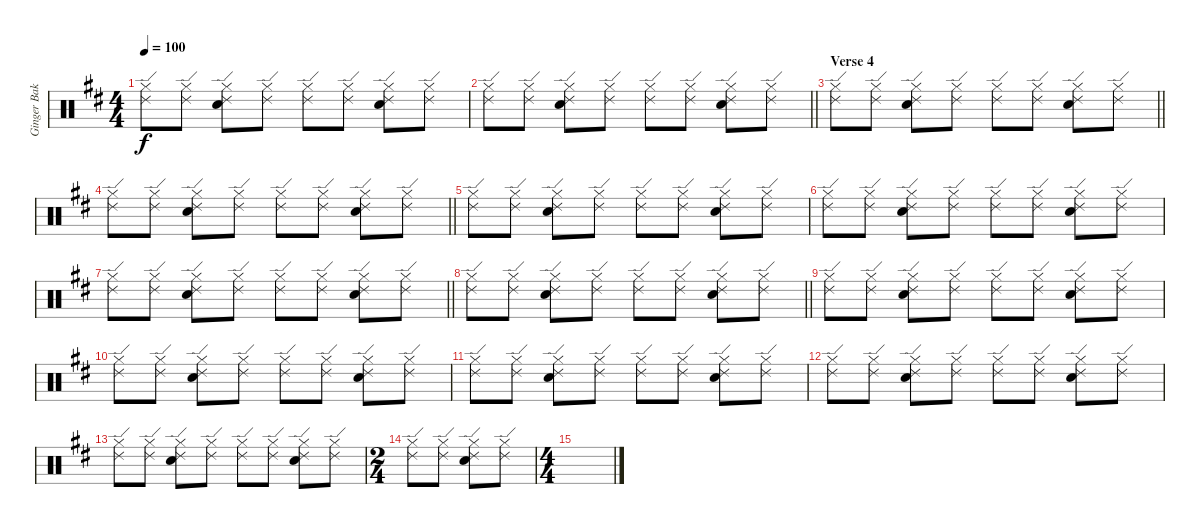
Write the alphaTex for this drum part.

\track ("Ginger Baker" "Ginger Bak") {instrument percussion}
\staff {score}
\articulation defaults
\ts (4 4)
\tempo 100
\clef neutral
\ks d
("Hi-Hat (closed)" "Ride (edge) 2").8{dy f} ("Hi-Hat (closed)" "Ride (edge) 2").8 ("Hi-Hat (closed)" "Ride (edge) 2" "Electric Snare (hit)").8 ("Hi-Hat (closed)" "Ride (edge) 2").8 ("Hi-Hat (closed)" "Ride (edge) 2").8 ("Hi-Hat (closed)" "Ride (edge) 2").8 ("Hi-Hat (closed)" "Ride (edge) 2" "Electric Snare (hit)").8 ("Hi-Hat (closed)" "Ride (edge) 2").8 |
\barLineRight lightlight
("Hi-Hat (closed)" "Ride (edge) 2").8 ("Hi-Hat (closed)" "Ride (edge) 2").8 ("Hi-Hat (closed)" "Ride (edge) 2" "Electric Snare (hit)").8 ("Hi-Hat (closed)" "Ride (edge) 2").8 ("Hi-Hat (closed)" "Ride (edge) 2").8 ("Hi-Hat (closed)" "Ride (edge) 2").8 ("Hi-Hat (closed)" "Ride (edge) 2" "Electric Snare (hit)").8 ("Hi-Hat (closed)" "Ride (edge) 2").8 |
\section ("" "Verse 4")
\barLineRight lightlight
("Hi-Hat (closed)" "Ride (edge) 2").8 ("Hi-Hat (closed)" "Ride (edge) 2").8 ("Hi-Hat (closed)" "Ride (edge) 2" "Electric Snare (hit)").8 ("Hi-Hat (closed)" "Ride (edge) 2").8 ("Hi-Hat (closed)" "Ride (edge) 2").8 ("Hi-Hat (closed)" "Ride (edge) 2").8 ("Hi-Hat (closed)" "Ride (edge) 2" "Electric Snare (hit)").8 ("Hi-Hat (closed)" "Ride (edge) 2").8 |
\barLineRight lightlight
("Hi-Hat (closed)" "Ride (edge) 2").8 ("Hi-Hat (closed)" "Ride (edge) 2").8 ("Hi-Hat (closed)" "Ride (edge) 2" "Electric Snare (hit)").8 ("Hi-Hat (closed)" "Ride (edge) 2").8 ("Hi-Hat (closed)" "Ride (edge) 2").8 ("Hi-Hat (closed)" "Ride (edge) 2").8 ("Hi-Hat (closed)" "Ride (edge) 2" "Electric Snare (hit)").8 ("Hi-Hat (closed)" "Ride (edge) 2").8 |
("Hi-Hat (closed)" "Ride (edge) 2").8 ("Hi-Hat (closed)" "Ride (edge) 2").8 ("Hi-Hat (closed)" "Ride (edge) 2" "Electric Snare (hit)").8 ("Hi-Hat (closed)" "Ride (edge) 2").8 ("Hi-Hat (closed)" "Ride (edge) 2").8 ("Hi-Hat (closed)" "Ride (edge) 2").8 ("Hi-Hat (closed)" "Ride (edge) 2" "Electric Snare (hit)").8 ("Hi-Hat (closed)" "Ride (edge) 2").8 |
("Hi-Hat (closed)" "Ride (edge) 2").8 ("Hi-Hat (closed)" "Ride (edge) 2").8 ("Hi-Hat (closed)" "Ride (edge) 2" "Electric Snare (hit)").8 ("Hi-Hat (closed)" "Ride (edge) 2").8 ("Hi-Hat (closed)" "Ride (edge) 2").8 ("Hi-Hat (closed)" "Ride (edge) 2").8 ("Hi-Hat (closed)" "Ride (edge) 2" "Electric Snare (hit)").8 ("Hi-Hat (closed)" "Ride (edge) 2").8 |
\barLineRight lightlight
("Hi-Hat (closed)" "Ride (edge) 2").8 ("Hi-Hat (closed)" "Ride (edge) 2").8 ("Hi-Hat (closed)" "Ride (edge) 2" "Electric Snare (hit)").8 ("Hi-Hat (closed)" "Ride (edge) 2").8 ("Hi-Hat (closed)" "Ride (edge) 2").8 ("Hi-Hat (closed)" "Ride (edge) 2").8 ("Hi-Hat (closed)" "Ride (edge) 2" "Electric Snare (hit)").8 ("Hi-Hat (closed)" "Ride (edge) 2").8 |
\barLineRight lightlight
("Hi-Hat (closed)" "Ride (edge) 2").8 ("Hi-Hat (closed)" "Ride (edge) 2").8 ("Hi-Hat (closed)" "Ride (edge) 2" "Electric Snare (hit)").8 ("Hi-Hat (closed)" "Ride (edge) 2").8 ("Hi-Hat (closed)" "Ride (edge) 2").8 ("Hi-Hat (closed)" "Ride (edge) 2").8 ("Hi-Hat (closed)" "Ride (edge) 2" "Electric Snare (hit)").8 ("Hi-Hat (closed)" "Ride (edge) 2").8 |
("Hi-Hat (closed)" "Ride (edge) 2").8 ("Hi-Hat (closed)" "Ride (edge) 2").8 ("Hi-Hat (closed)" "Ride (edge) 2" "Electric Snare (hit)").8 ("Hi-Hat (closed)" "Ride (edge) 2").8 ("Hi-Hat (closed)" "Ride (edge) 2").8 ("Hi-Hat (closed)" "Ride (edge) 2").8 ("Hi-Hat (closed)" "Ride (edge) 2" "Electric Snare (hit)").8 ("Hi-Hat (closed)" "Ride (edge) 2").8 |
("Hi-Hat (closed)" "Ride (edge) 2").8 ("Hi-Hat (closed)" "Ride (edge) 2").8 ("Hi-Hat (closed)" "Ride (edge) 2" "Electric Snare (hit)").8 ("Hi-Hat (closed)" "Ride (edge) 2").8 ("Hi-Hat (closed)" "Ride (edge) 2").8 ("Hi-Hat (closed)" "Ride (edge) 2").8 ("Hi-Hat (closed)" "Ride (edge) 2" "Electric Snare (hit)").8 ("Hi-Hat (closed)" "Ride (edge) 2").8 |
("Hi-Hat (closed)" "Ride (edge) 2").8 ("Hi-Hat (closed)" "Ride (edge) 2").8 ("Hi-Hat (closed)" "Ride (edge) 2" "Electric Snare (hit)").8 ("Hi-Hat (closed)" "Ride (edge) 2").8 ("Hi-Hat (closed)" "Ride (edge) 2").8 ("Hi-Hat (closed)" "Ride (edge) 2").8 ("Hi-Hat (closed)" "Ride (edge) 2" "Electric Snare (hit)").8 ("Hi-Hat (closed)" "Ride (edge) 2").8 |
("Hi-Hat (closed)" "Ride (edge) 2").8 ("Hi-Hat (closed)" "Ride (edge) 2").8 ("Hi-Hat (closed)" "Ride (edge) 2" "Electric Snare (hit)").8 ("Hi-Hat (closed)" "Ride (edge) 2").8 ("Hi-Hat (closed)" "Ride (edge) 2").8 ("Hi-Hat (closed)" "Ride (edge) 2").8 ("Hi-Hat (closed)" "Ride (edge) 2" "Electric Snare (hit)").8 ("Hi-Hat (closed)" "Ride (edge) 2").8 |
("Hi-Hat (closed)" "Ride (edge) 2").8 ("Hi-Hat (closed)" "Ride (edge) 2").8 ("Hi-Hat (closed)" "Ride (edge) 2" "Electric Snare (hit)").8 ("Hi-Hat (closed)" "Ride (edge) 2").8 ("Hi-Hat (closed)" "Ride (edge) 2").8 ("Hi-Hat (closed)" "Ride (edge) 2").8 ("Hi-Hat (closed)" "Ride (edge) 2" "Electric Snare (hit)").8 ("Hi-Hat (closed)" "Ride (edge) 2").8 |
\ts (2 4)
("Hi-Hat (closed)" "Ride (edge) 2").8 ("Hi-Hat (closed)" "Ride (edge) 2").8 ("Hi-Hat (closed)" "Ride (edge) 2" "Electric Snare (hit)").8 ("Hi-Hat (closed)" "Ride (edge) 2").8 |
\ts (4 4)
